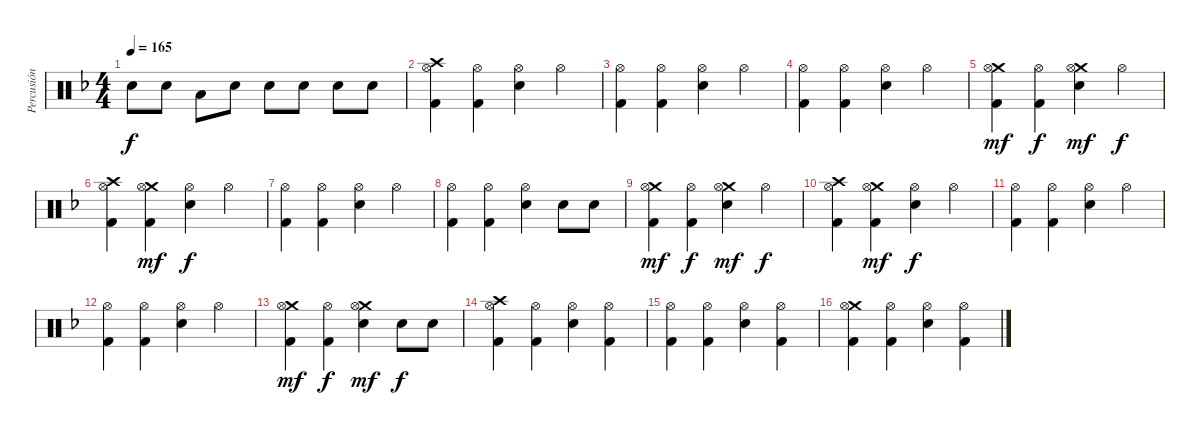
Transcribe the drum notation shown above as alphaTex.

\track ("Percusión" "Percusión") {instrument percussion}
\staff {score}
\articulation defaults
\ts (4 4)
\tempo 165
\clef neutral
\ks f "Electric Snare (hit)".8{dy f} "Electric Snare (hit)".8 "Low Tom (hit)".8 "Electric Snare (hit)".8 "Electric Snare (hit)".8 "Electric Snare (hit)".8 "Electric Snare (hit)".8 "Electric Snare (hit)".8
|
("Crash high (hit)" "Hi-Hat (open)" "Kick (hit) 2").4 ("Hi-Hat (open)" "Kick (hit) 2").4 ("Hi-Hat (open)" "Electric Snare (hit)").4 "Hi-Hat (open)".4 |
("Hi-Hat (open)" "Kick (hit) 2").4 ("Hi-Hat (open)" "Kick (hit) 2").4 ("Hi-Hat (open)" "Electric Snare (hit)").4 "Hi-Hat (open)".4 |
("Hi-Hat (open)" "Kick (hit) 2").4 ("Hi-Hat (open)" "Kick (hit) 2").4 ("Hi-Hat (open)" "Electric Snare (hit)").4 "Hi-Hat (open)".4 |
("Crash medium (hit)" "Hi-Hat (open)" "Kick (hit) 2").4{dy mf} ("Hi-Hat (open)" "Kick (hit) 2").4{dy f} ("Crash medium (hit)" "Hi-Hat (open)" "Electric Snare (hit)").4{dy mf} "Hi-Hat (open)".4{dy f} |
("Crash high (hit)" "Hi-Hat (open)" "Kick (hit) 2").4 ("Crash medium (hit)" "Hi-Hat (open)" "Kick (hit) 2").4{dy mf} ("Hi-Hat (open)" "Electric Snare (hit)").4{dy f} "Hi-Hat (open)".4 |
("Hi-Hat (open)" "Kick (hit) 2").4 ("Hi-Hat (open)" "Kick (hit) 2").4 ("Hi-Hat (open)" "Electric Snare (hit)").4 "Hi-Hat (open)".4 |
("Hi-Hat (open)" "Kick (hit) 2").4 ("Hi-Hat (open)" "Kick (hit) 2").4 ("Hi-Hat (open)" "Electric Snare (hit)").4 "Electric Snare (hit)".8 "Electric Snare (hit)".8 |
("Crash medium (hit)" "Hi-Hat (open)" "Kick (hit) 2").4{dy mf} ("Hi-Hat (open)" "Kick (hit) 2").4{dy f} ("Crash medium (hit)" "Hi-Hat (open)" "Electric Snare (hit)").4{dy mf} "Hi-Hat (open)".4{dy f} |
("Crash high (hit)" "Hi-Hat (open)" "Kick (hit) 2").4 ("Crash medium (hit)" "Hi-Hat (open)" "Kick (hit) 2").4{dy mf} ("Hi-Hat (open)" "Electric Snare (hit)").4{dy f} "Hi-Hat (open)".4 |
("Hi-Hat (open)" "Kick (hit) 2").4 ("Hi-Hat (open)" "Kick (hit) 2").4 ("Hi-Hat (open)" "Electric Snare (hit)").4 "Hi-Hat (open)".4 |
("Hi-Hat (open)" "Kick (hit) 2").4 ("Hi-Hat (open)" "Kick (hit) 2").4 ("Hi-Hat (open)" "Electric Snare (hit)").4 "Hi-Hat (open)".4 |
("Crash medium (hit)" "Hi-Hat (open)" "Kick (hit) 2").4{dy mf} ("Hi-Hat (open)" "Kick (hit) 2").4{dy f} ("Crash medium (hit)" "Hi-Hat (open)" "Electric Snare (hit)").4{dy mf} "Electric Snare (hit)".8{dy f} "Electric Snare (hit)".8 |
("Crash high (hit)" "Hi-Hat (open)" "Kick (hit) 2").4 ("Hi-Hat (open)" "Kick (hit) 2").4 ("Hi-Hat (open)" "Electric Snare (hit)").4 ("Hi-Hat (open)" "Kick (hit) 2").4 |
("Hi-Hat (open)" "Kick (hit) 2").4 ("Hi-Hat (open)" "Kick (hit) 2").4 ("Hi-Hat (open)" "Electric Snare (hit)").4 ("Hi-Hat (open)" "Kick (hit) 2").4 |
("Crash medium (hit)" "Hi-Hat (open)" "Kick (hit) 2").4 ("Hi-Hat (open)" "Kick (hit) 2").4 ("Hi-Hat (open)" "Electric Snare (hit)").4 ("Hi-Hat (open)" "Kick (hit) 2").4
